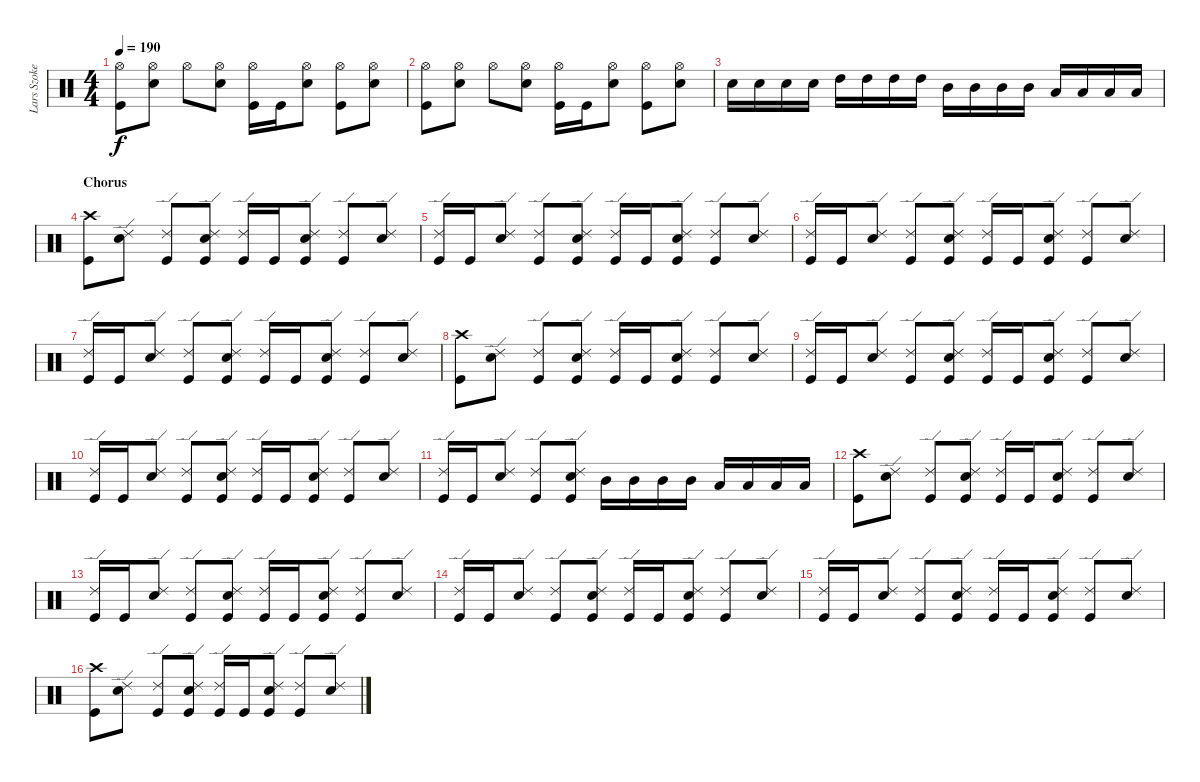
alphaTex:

\track ("Lars Szoke" "Lars Szoke") {instrument percussion}
\staff {score}
\articulation defaults
\ts (4 4)
\tempo 190
\clef neutral
\ks c
("Hi-Hat (open)" "Kick (hit)").8{dy f} ("Hi-Hat (open)" "Snare (hit) 2").8 "Hi-Hat (open)".8 ("Hi-Hat (open)" "Snare (hit) 2").8 ("Hi-Hat (open)" "Kick (hit)").16 "Kick (hit)".16 ("Hi-Hat (open)" "Snare (hit) 2").8 ("Hi-Hat (open)" "Kick (hit)").8 ("Hi-Hat (open)" "Snare (hit) 2").8 |
("Hi-Hat (open)" "Kick (hit)").8 ("Hi-Hat (open)" "Snare (hit) 2").8 "Hi-Hat (open)".8 ("Hi-Hat (open)" "Snare (hit) 2").8 ("Hi-Hat (open)" "Kick (hit)").16 "Kick (hit)".16 ("Hi-Hat (open)" "Snare (hit) 2").8 ("Hi-Hat (open)" "Kick (hit)").8 ("Hi-Hat (open)" "Snare (hit) 2").8 |
"Snare (hit) 2".16 "Snare (hit) 2".16 "Snare (hit) 2".16 "Snare (hit) 2".16 "High Tom (hit)".16 "High Tom (hit)".16 "High Tom (hit)".16 "High Tom (hit)".16 "Mid Tom (hit)".16 "Mid Tom (hit)".16 "Mid Tom (hit)".16 "Mid Tom (hit)".16 "Low Tom (hit)".16 "Low Tom (hit)".16 "Low Tom (hit)".16 "Low Tom (hit)".16 |
\section ("" "Chorus")
("Crash high (hit)" "Kick (hit)").8 ("Ride (edge) 2" "Snare (hit) 2").8 ("Ride (edge) 2" "Kick (hit)").8 ("Ride (edge) 2" "Snare (hit) 2" "Kick (hit)").8 ("Ride (edge) 2" "Kick (hit)").16 "Kick (hit)".16 ("Ride (edge) 2" "Snare (hit) 2" "Kick (hit)").8 ("Ride (edge) 2" "Kick (hit)").8 ("Ride (edge) 2" "Snare (hit) 2").8 |
("Ride (edge) 2" "Kick (hit)").16 "Kick (hit)".16 ("Ride (edge) 2" "Snare (hit) 2").8 ("Ride (edge) 2" "Kick (hit)").8 ("Ride (edge) 2" "Snare (hit) 2" "Kick (hit)").8 ("Ride (edge) 2" "Kick (hit)").16 "Kick (hit)".16 ("Ride (edge) 2" "Snare (hit) 2" "Kick (hit)").8 ("Ride (edge) 2" "Kick (hit)").8 ("Ride (edge) 2" "Snare (hit) 2").8 |
("Ride (edge) 2" "Kick (hit)").16 "Kick (hit)".16 ("Ride (edge) 2" "Snare (hit) 2").8 ("Ride (edge) 2" "Kick (hit)").8 ("Ride (edge) 2" "Snare (hit) 2" "Kick (hit)").8 ("Ride (edge) 2" "Kick (hit)").16 "Kick (hit)".16 ("Ride (edge) 2" "Snare (hit) 2" "Kick (hit)").8 ("Ride (edge) 2" "Kick (hit)").8 ("Ride (edge) 2" "Snare (hit) 2").8 |
("Ride (edge) 2" "Kick (hit)").16 "Kick (hit)".16 ("Ride (edge) 2" "Snare (hit) 2").8 ("Ride (edge) 2" "Kick (hit)").8 ("Ride (edge) 2" "Snare (hit) 2" "Kick (hit)").8 ("Ride (edge) 2" "Kick (hit)").16 "Kick (hit)".16 ("Ride (edge) 2" "Snare (hit) 2" "Kick (hit)").8 ("Ride (edge) 2" "Kick (hit)").8 ("Ride (edge) 2" "Snare (hit) 2").8 |
("Crash high (hit)" "Kick (hit)").8 ("Ride (edge) 2" "Snare (hit) 2").8 ("Ride (edge) 2" "Kick (hit)").8 ("Ride (edge) 2" "Snare (hit) 2" "Kick (hit)").8 ("Ride (edge) 2" "Kick (hit)").16 "Kick (hit)".16 ("Ride (edge) 2" "Snare (hit) 2" "Kick (hit)").8 ("Ride (edge) 2" "Kick (hit)").8 ("Ride (edge) 2" "Snare (hit) 2").8 |
("Ride (edge) 2" "Kick (hit)").16 "Kick (hit)".16 ("Ride (edge) 2" "Snare (hit) 2").8 ("Ride (edge) 2" "Kick (hit)").8 ("Ride (edge) 2" "Snare (hit) 2" "Kick (hit)").8 ("Ride (edge) 2" "Kick (hit)").16 "Kick (hit)".16 ("Ride (edge) 2" "Snare (hit) 2" "Kick (hit)").8 ("Ride (edge) 2" "Kick (hit)").8 ("Ride (edge) 2" "Snare (hit) 2").8 |
("Ride (edge) 2" "Kick (hit)").16 "Kick (hit)".16 ("Ride (edge) 2" "Snare (hit) 2").8 ("Ride (edge) 2" "Kick (hit)").8 ("Ride (edge) 2" "Snare (hit) 2" "Kick (hit)").8 ("Ride (edge) 2" "Kick (hit)").16 "Kick (hit)".16 ("Ride (edge) 2" "Snare (hit) 2" "Kick (hit)").8 ("Ride (edge) 2" "Kick (hit)").8 ("Ride (edge) 2" "Snare (hit) 2").8 |
("Ride (edge) 2" "Kick (hit)").16 "Kick (hit)".16 ("Ride (edge) 2" "Snare (hit) 2").8 ("Ride (edge) 2" "Kick (hit)").8 ("Ride (edge) 2" "Snare (hit) 2" "Kick (hit)").8 "Mid Tom (hit)".16 "Mid Tom (hit)".16 "Mid Tom (hit)".16 "Mid Tom (hit)".16 "Low Tom (hit)".16 "Low Tom (hit)".16 "Low Tom (hit)".16 "Low Tom (hit)".16 |
("Crash high (hit)" "Kick (hit)").8 ("Ride (edge) 2" "Snare (hit) 2").8 ("Ride (edge) 2" "Kick (hit)").8 ("Ride (edge) 2" "Snare (hit) 2" "Kick (hit)").8 ("Ride (edge) 2" "Kick (hit)").16 "Kick (hit)".16 ("Ride (edge) 2" "Snare (hit) 2" "Kick (hit)").8 ("Ride (edge) 2" "Kick (hit)").8 ("Ride (edge) 2" "Snare (hit) 2").8 |
("Ride (edge) 2" "Kick (hit)").16 "Kick (hit)".16 ("Ride (edge) 2" "Snare (hit) 2").8 ("Ride (edge) 2" "Kick (hit)").8 ("Ride (edge) 2" "Snare (hit) 2" "Kick (hit)").8 ("Ride (edge) 2" "Kick (hit)").16 "Kick (hit)".16 ("Ride (edge) 2" "Snare (hit) 2" "Kick (hit)").8 ("Ride (edge) 2" "Kick (hit)").8 ("Ride (edge) 2" "Snare (hit) 2").8 |
("Ride (edge) 2" "Kick (hit)").16 "Kick (hit)".16 ("Ride (edge) 2" "Snare (hit) 2").8 ("Ride (edge) 2" "Kick (hit)").8 ("Ride (edge) 2" "Snare (hit) 2" "Kick (hit)").8 ("Ride (edge) 2" "Kick (hit)").16 "Kick (hit)".16 ("Ride (edge) 2" "Snare (hit) 2" "Kick (hit)").8 ("Ride (edge) 2" "Kick (hit)").8 ("Ride (edge) 2" "Snare (hit) 2").8 |
("Ride (edge) 2" "Kick (hit)").16 "Kick (hit)".16 ("Ride (edge) 2" "Snare (hit) 2").8 ("Ride (edge) 2" "Kick (hit)").8 ("Ride (edge) 2" "Snare (hit) 2" "Kick (hit)").8 ("Ride (edge) 2" "Kick (hit)").16 "Kick (hit)".16 ("Ride (edge) 2" "Snare (hit) 2" "Kick (hit)").8 ("Ride (edge) 2" "Kick (hit)").8 ("Ride (edge) 2" "Snare (hit) 2").8 |
("Crash high (hit)" "Kick (hit)").8 ("Ride (edge) 2" "Snare (hit) 2").8 ("Ride (edge) 2" "Kick (hit)").8 ("Ride (edge) 2" "Snare (hit) 2" "Kick (hit)").8 ("Ride (edge) 2" "Kick (hit)").16 "Kick (hit)".16 ("Ride (edge) 2" "Snare (hit) 2" "Kick (hit)").8 ("Ride (edge) 2" "Kick (hit)").8 ("Ride (edge) 2" "Snare (hit) 2").8
